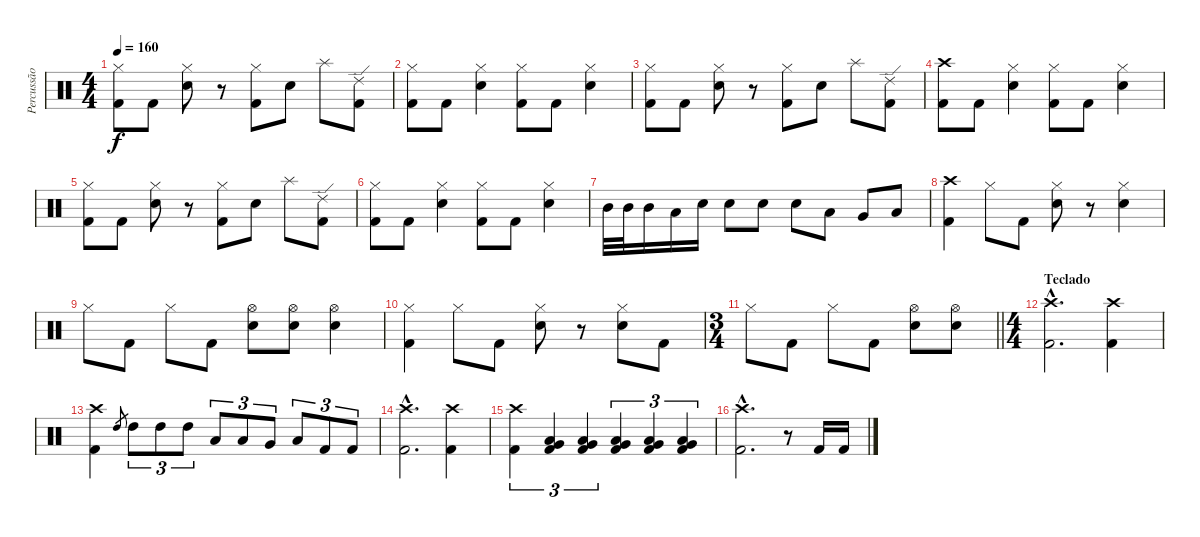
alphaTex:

\track ("Percussão" "Percussão") {instrument percussion}
\staff {score}
\articulation defaults
\ts (4 4)
\tempo 160
\clef neutral
\ks c
("Hi-Hat (closed)" "Kick (hit) 2").8{dy f} "Kick (hit) 2".8 ("Hi-Hat (closed)" "Electric Snare (hit)").8 r.8 ("Hi-Hat (closed)" "Kick (hit) 2").8 "Electric Snare (hit)".8 "Splash (hit)".8 ("Ride (edge) 2" "Kick (hit) 2").8 |
("Hi-Hat (closed)" "Kick (hit) 2").8 "Kick (hit) 2".8 ("Hi-Hat (closed)" "Electric Snare (hit)").4 ("Hi-Hat (closed)" "Kick (hit) 2").8 "Kick (hit) 2".8 ("Hi-Hat (closed)" "Electric Snare (hit)").4 |
("Hi-Hat (closed)" "Kick (hit) 2").8 "Kick (hit) 2".8 ("Hi-Hat (closed)" "Electric Snare (hit)").8 r.8 ("Hi-Hat (closed)" "Kick (hit) 2").8 "Electric Snare (hit)".8 "Splash (hit)".8 ("Ride (edge) 2" "Kick (hit) 2").8 |
("Crash high (hit)" "Kick (hit) 2").8 "Kick (hit) 2".8 ("Hi-Hat (closed)" "Electric Snare (hit)").4 ("Hi-Hat (closed)" "Kick (hit) 2").8 "Kick (hit) 2".8 ("Hi-Hat (closed)" "Electric Snare (hit)").4 |
("Hi-Hat (closed)" "Kick (hit) 2").8 "Kick (hit) 2".8 ("Hi-Hat (closed)" "Electric Snare (hit)").8 r.8 ("Hi-Hat (closed)" "Kick (hit) 2").8 "Electric Snare (hit)".8 "Splash (hit)".8 ("Ride (edge) 2" "Kick (hit) 2").8 |
("Hi-Hat (closed)" "Kick (hit) 2").8 "Kick (hit) 2".8 ("Hi-Hat (closed)" "Electric Snare (hit)").4 ("Hi-Hat (closed)" "Kick (hit) 2").8 "Kick (hit) 2".8 ("Hi-Hat (closed)" "Electric Snare (hit)").4 |
"Mid Tom (hit)".32 "Mid Tom (hit)".32 "Mid Tom (hit)".16 "Low Tom (hit)".16 "Electric Snare (hit)".16 "Electric Snare (hit)".8 "Electric Snare (hit)".8 "Electric Snare (hit)".8 "Low Tom (hit)".8 "Very Low Tom (hit)".8 "Low Floor Tom (hit)".8 |
("Crash high (hit)" "Kick (hit) 2").4 "Hi-Hat (closed)".8 "Kick (hit) 2".8 ("Hi-Hat (closed)" "Electric Snare (hit)").8 r.8 ("Hi-Hat (closed)" "Electric Snare (hit)").4 |
"Hi-Hat (closed)".8 "Kick (hit) 2".8 "Hi-Hat (closed)".8 "Kick (hit) 2".8 ("Hi-Hat (open)" "Electric Snare (hit)").8 ("Hi-Hat (open)" "Electric Snare (hit)").8 ("Hi-Hat (open)" "Electric Snare (hit)").4 |
("Hi-Hat (closed)" "Kick (hit) 2").4 "Hi-Hat (closed)".8 "Kick (hit) 2".8 ("Hi-Hat (closed)" "Electric Snare (hit)").8 r.8 ("Hi-Hat (closed)" "Electric Snare (hit)").8 "Kick (hit) 2".8 |
\ts (3 4)
\barLineRight lightlight "Hi-Hat (closed)".8 "Kick (hit) 2".8 "Hi-Hat (closed)".8 "Kick (hit) 2".8
("Hi-Hat (open)" "Electric Snare (hit)").8 ("Hi-Hat (open)" "Electric Snare (hit)").8 |
\ts (4 4)
\section ("" "Teclado")
("Crash high (hit)"{hac} "Kick (hit) 2"{hac}).2{d} ("Crash high (hit)" "Kick (hit) 2").4 |
("Crash high (hit)" "Kick (hit) 2").4 "High Tom (hit)".8{gr} "High Tom (hit)".8{tu (3 2)} "High Tom (hit)".8{tu (3 2)} "High Tom (hit)".8{tu (3 2)} "Low Tom (hit)".8{tu (3 2)} "Low Tom (hit)".8{tu (3 2)} "Very Low Tom (hit)".8{tu (3 2)} "Low Floor Tom (hit)".8{tu (3 2)} "Kick (hit) 2".8{tu (3 2)} "Kick (hit) 2".8{tu (3 2)} |
("Crash high (hit)"{hac} "Kick (hit) 2"{hac}).2{d} ("Crash high (hit)" "Kick (hit) 2").4 |
("Crash high (hit)" "Kick (hit) 2").4{tu (3 2)} ("Very Low Tom (hit)" "Low Floor Tom (hit)" "Kick (hit) 2").4{tu (3 2)} ("Very Low Tom (hit)" "Low Floor Tom (hit)" "Kick (hit) 2").4{tu (3 2)} ("Very Low Tom (hit)" "Low Floor Tom (hit)" "Kick (hit) 2").4{tu (3 2)} ("Very Low Tom (hit)" "Low Floor Tom (hit)" "Kick (hit) 2").4{tu (3 2)} ("Very Low Tom (hit)" "Low Floor Tom (hit)" "Kick (hit) 2").4{tu (3 2)} |
("Crash high (hit)"{hac} "Kick (hit) 2"{hac}).2{d} r.8 "Kick (hit) 2".16 "Kick (hit) 2".16
